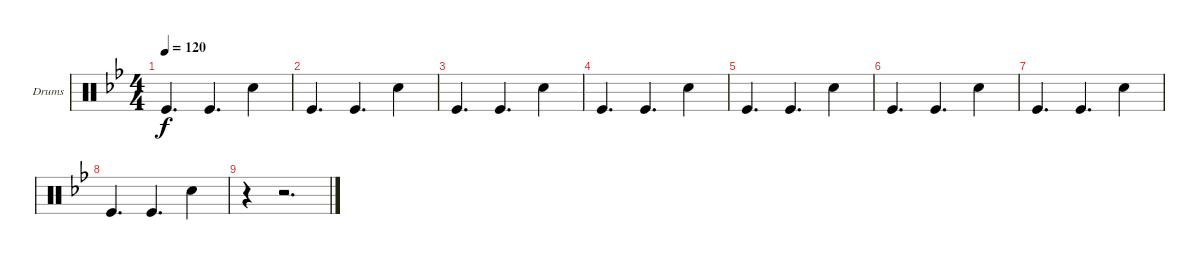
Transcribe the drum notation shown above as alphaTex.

\bracketExtendMode groupsimilarinstruments
\firstSystemTrackNameOrientation horizontal
\otherSystemsTrackNameOrientation horizontal
\track ("Drumkit" "Drums") {instrument percussion}
\staff {score}
\articulation defaults
\ts (4 4)
\tempo 120
\clef neutral
\ks bb "Kick (hit)".4{d dy f} "Kick (hit)".4{d} "Snare (hit) 2".4
|
"Kick (hit)".4{d} "Kick (hit)".4{d} "Snare (hit) 2".4 |
"Kick (hit)".4{d} "Kick (hit)".4{d} "Snare (hit) 2".4 |
"Kick (hit)".4{d} "Kick (hit)".4{d} "Snare (hit) 2".4 |
"Kick (hit)".4{d} "Kick (hit)".4{d} "Snare (hit) 2".4 |
"Kick (hit)".4{d} "Kick (hit)".4{d} "Snare (hit) 2".4 |
"Kick (hit)".4{d} "Kick (hit)".4{d} "Snare (hit) 2".4 |
"Kick (hit)".4{d} "Kick (hit)".4{d} "Snare (hit) 2".4 |
r.4 r.2{d}
